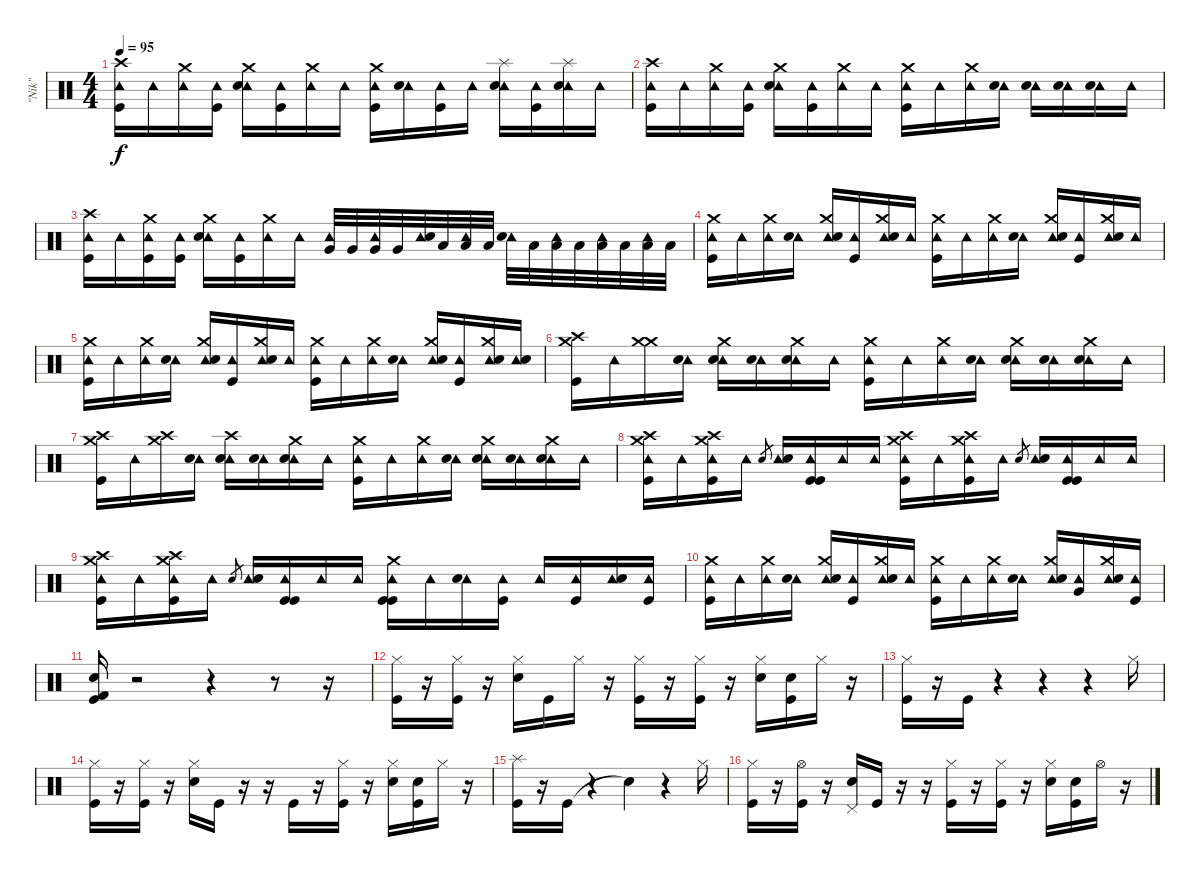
\track ("\"Nik\"" "\"Nik\"") {instrument percussion}
\staff {score}
\articulation defaults
\ts (4 4)
\tempo 95
\clef neutral
\ks c
("Tambourine (hit)" "Crash high (hit)" "Kick (hit)").16{dy f} "Tambourine (hit)".16 ("Tambourine (hit)" "Crash medium (hit)").16 ("Tambourine (hit)" "Kick (hit)").16 ("Tambourine (hit)" "Crash medium (hit)" "Snare (hit) 2").16 ("Tambourine (hit)" "Kick (hit)").16 ("Tambourine (hit)" "Crash medium (hit)").16 "Tambourine (hit)".16 ("Tambourine (hit)" "Crash medium (hit)" "Kick (hit)").16 ("Tambourine (hit)" "Snare (hit) 2").16 ("Tambourine (hit)" "Kick (hit)").16 "Tambourine (hit)".16 ("Tambourine (hit)" "Splash (hit)" "Snare (hit) 2").16 ("Tambourine (hit)" "Kick (hit)").16 ("Tambourine (hit)" "Splash (hit)" "Snare (hit) 2").16 "Tambourine (hit)".16 |
("Tambourine (hit)" "Crash high (hit)" "Kick (hit)").16 "Tambourine (hit)".16 ("Tambourine (hit)" "Crash medium (hit)").16 ("Tambourine (hit)" "Kick (hit)").16 ("Tambourine (hit)" "Crash medium (hit)" "Snare (hit) 2").16 ("Tambourine (hit)" "Kick (hit)").16 ("Tambourine (hit)" "Crash medium (hit)").16 "Tambourine (hit)".16 ("Tambourine (hit)" "Crash medium (hit)" "Kick (hit)").16 "Tambourine (hit)".16 ("Tambourine (hit)" "Crash medium (hit)").16 ("Tambourine (hit)" "Snare (hit) 2").16 ("Tambourine (hit)" "Snare (hit) 2").16 ("Tambourine (hit)" "Snare (hit) 2").16 ("Tambourine (hit)" "Snare (hit) 2").16 "Tambourine (hit)".16 |
("Tambourine (hit)" "Crash high (hit)" "Kick (hit)").16 "Tambourine (hit)".16 ("Tambourine (hit)" "Crash medium (hit)" "Kick (hit)").16 ("Tambourine (hit)" "Kick (hit)").16 ("Tambourine (hit)" "Crash medium (hit)" "Snare (hit) 2").16 ("Tambourine (hit)" "Kick (hit)").16 ("Tambourine (hit)" "Crash medium (hit)").16 "Tambourine (hit)".16 ("Tambourine (hit)" "Very Low Tom (hit)").32 "Very Low Tom (hit)".32 ("Tambourine (hit)" "Very Low Tom (hit)").32 "Very Low Tom (hit)".32 ("Tambourine (hit)" "Snare (hit) 2").32 "Low Tom (hit)".32 ("Tambourine (hit)" "Low Tom (hit)").32 "Low Tom (hit)".32 ("Tambourine (hit)" "Snare (hit) 2").32 "Low Tom (hit)".32 ("Tambourine (hit)" "Low Tom (hit)").32 "Low Tom (hit)".32 ("Tambourine (hit)" "Low Tom (hit)").32 "Low Floor Tom (hit)".32 ("Tambourine (hit)" "Low Floor Tom (hit)").32 "Low Floor Tom (hit)".32 |
("Tambourine (hit)" "Crash medium (hit)" "Kick (hit)").16 "Tambourine (hit)".16 ("Tambourine (hit)" "Crash medium (hit)").16 ("Tambourine (hit)" "Snare (hit) 2").16 ("Tambourine (hit)" "Crash medium (hit)" "Snare (hit) 2").16 ("Tambourine (hit)" "Kick (hit)").16 ("Tambourine (hit)" "Crash medium (hit)" "Snare (hit) 2").16 "Tambourine (hit)".16 ("Tambourine (hit)" "Crash medium (hit)" "Kick (hit)").16 "Tambourine (hit)".16 ("Tambourine (hit)" "Crash medium (hit)").16 ("Tambourine (hit)" "Snare (hit) 2").16 ("Tambourine (hit)" "Crash medium (hit)" "Snare (hit) 2").16 ("Tambourine (hit)" "Kick (hit)").16 ("Tambourine (hit)" "Crash medium (hit)" "Snare (hit) 2").16 "Tambourine (hit)".16 |
("Tambourine (hit)" "Crash medium (hit)" "Kick (hit)").16 "Tambourine (hit)".16 ("Tambourine (hit)" "Crash medium (hit)").16 ("Tambourine (hit)" "Snare (hit) 2").16 ("Tambourine (hit)" "Crash medium (hit)" "Snare (hit) 2").16 ("Tambourine (hit)" "Kick (hit)").16 ("Tambourine (hit)" "Crash medium (hit)" "Snare (hit) 2").16 "Tambourine (hit)".16 ("Tambourine (hit)" "Crash medium (hit)" "Kick (hit)").16 "Tambourine (hit)".16 ("Tambourine (hit)" "Crash medium (hit)").16 ("Tambourine (hit)" "Snare (hit) 2").16 ("Tambourine (hit)" "Crash medium (hit)" "Snare (hit) 2").16 ("Tambourine (hit)" "Kick (hit)").16 ("Tambourine (hit)" "Crash medium (hit)" "Snare (hit) 2").16 ("Tambourine (hit)" "Snare (hit) 2").16 |
("Crash medium (hit)" "Crash high (hit)" "Kick (hit)").16 "Tambourine (hit)".16 ("Crash medium (hit)" "Crash medium (hit)").16 ("Tambourine (hit)" "Snare (hit) 2").16 ("Tambourine (hit)" "Crash medium (hit)" "Snare (hit) 2").16 ("Tambourine (hit)" "Snare (hit) 2").16 ("Tambourine (hit)" "Crash medium (hit)" "Snare (hit) 2").16 "Tambourine (hit)".16 ("Tambourine (hit)" "Crash medium (hit)" "Kick (hit)").16 "Tambourine (hit)".16 ("Tambourine (hit)" "Crash medium (hit)").16 ("Tambourine (hit)" "Snare (hit) 2").16 ("Tambourine (hit)" "Crash medium (hit)" "Snare (hit) 2").16 ("Tambourine (hit)" "Snare (hit) 2").16 ("Tambourine (hit)" "Crash medium (hit)" "Snare (hit) 2").16 "Tambourine (hit)".16 |
("Crash medium (hit)" "Crash high (hit)" "Kick (hit)").16 "Tambourine (hit)".16 ("Crash medium (hit)" "Crash high (hit)").16 ("Tambourine (hit)" "Snare (hit) 2").16 ("Tambourine (hit)" "Crash high (hit)" "Snare (hit) 2").16 ("Tambourine (hit)" "Snare (hit) 2").16 ("Tambourine (hit)" "Crash medium (hit)" "Snare (hit) 2").16 "Tambourine (hit)".16 ("Tambourine (hit)" "Crash medium (hit)" "Kick (hit)").16 "Tambourine (hit)".16 ("Tambourine (hit)" "Crash medium (hit)").16 ("Tambourine (hit)" "Snare (hit) 2").16 ("Tambourine (hit)" "Crash medium (hit)" "Snare (hit) 2").16 ("Tambourine (hit)" "Snare (hit) 2").16 ("Tambourine (hit)" "Crash medium (hit)" "Snare (hit) 2").16 "Tambourine (hit)".16 |
("Tambourine (hit)" "Crash medium (hit)" "Crash high (hit)" "Kick (hit)").16 "Tambourine (hit)".16 ("Tambourine (hit)" "Crash medium (hit)" "Crash high (hit)" "Kick (hit)").16 "Tambourine (hit)".16 "Snare (hit) 2".8{gr} ("Tambourine (hit)" "Snare (hit) 2").16 ("Tambourine (hit)" "Kick (hit)" "Kick (hit)").16 "Tambourine (hit)".16 "Tambourine (hit)".16 ("Tambourine (hit)" "Crash medium (hit)" "Crash high (hit)" "Kick (hit)").16 "Tambourine (hit)".16 ("Tambourine (hit)" "Crash medium (hit)" "Crash high (hit)" "Kick (hit)").16 "Tambourine (hit)".16 "Snare (hit) 2".8{gr} ("Tambourine (hit)" "Snare (hit) 2").16 ("Tambourine (hit)" "Kick (hit)" "Kick (hit)").16 "Tambourine (hit)".16 "Tambourine (hit)".16 |
("Tambourine (hit)" "Crash medium (hit)" "Crash high (hit)" "Kick (hit)").16 "Tambourine (hit)".16 ("Tambourine (hit)" "Crash medium (hit)" "Crash high (hit)" "Kick (hit)").16 "Tambourine (hit)".16 "Snare (hit) 2".8{gr} ("Tambourine (hit)" "Snare (hit) 2").16 ("Tambourine (hit)" "Kick (hit)" "Kick (hit)").16 "Tambourine (hit)".16 "Tambourine (hit)".16 ("Tambourine (hit)" "Crash medium (hit)" "Kick (hit)" "Kick (hit)").16 "Tambourine (hit)".16 ("Tambourine (hit)" "Snare (hit) 2").16 ("Tambourine (hit)" "Kick (hit)").16 "Tambourine (hit)".16 ("Tambourine (hit)" "Kick (hit)").16 ("Tambourine (hit)" "Snare (hit) 2").16 ("Tambourine (hit)" "Kick (hit)").16 |
("Tambourine (hit)" "Crash medium (hit)" "Kick (hit)").16 "Tambourine (hit)".16 ("Tambourine (hit)" "Crash medium (hit)").16 ("Tambourine (hit)" "Snare (hit) 2").16 ("Tambourine (hit)" "Crash medium (hit)" "Snare (hit) 2").16 ("Tambourine (hit)" "Kick (hit)").16 ("Tambourine (hit)" "Crash medium (hit)" "Snare (hit) 2").16 "Tambourine (hit)".16 ("Tambourine (hit)" "Crash medium (hit)" "Kick (hit)").16 "Tambourine (hit)".16 ("Tambourine (hit)" "Crash medium (hit)").16 ("Tambourine (hit)" "Snare (hit) 2").16 ("Tambourine (hit)" "Crash medium (hit)" "Snare (hit) 2").16 ("Tambourine (hit)" "Very Low Tom (hit)").16 ("Tambourine (hit)" "Crash medium (hit)" "Snare (hit) 2").16 ("Tambourine (hit)" "Kick (hit)").16 |
("Snare (hit) 2" "Kick (hit) 2" "Kick (hit)").16 r.2 r.4 r.8 r.16 |
("Hi-Hat (closed)" "Kick (hit)").16 r.16 ("Hi-Hat (closed)" "Kick (hit)").16 r.16 ("Hi-Hat (closed)" "Snare (hit) 2").16 "Kick (hit)".16 "Hi-Hat (closed)".16 r.16 ("Hi-Hat (closed)" "Kick (hit)").16 r.16 ("Hi-Hat (closed)" "Kick (hit)").16 r.16 ("Hi-Hat (closed)" "Snare (hit) 2").16 ("Snare (hit)"{x} "Kick (hit)").16 "Hi-Hat (closed)".16 r.16 |
("Hi-Hat (closed)" "Kick (hit)").16 r.16 "Kick (hit)".16 r.4 r.4 r.4 "Hi-Hat (closed)".16 |
("Hi-Hat (closed)" "Kick (hit)").16 r.16 ("Hi-Hat (closed)" "Kick (hit)").16 r.16 ("Hi-Hat (closed)" "Snare (hit) 2").16 "Kick (hit)".16 r.16 r.16 "Kick (hit)".16 r.16 ("Hi-Hat (closed)" "Kick (hit)").16 r.16 ("Hi-Hat (closed)" "Snare (hit) 2").16 ("Snare (hit)"{x} "Kick (hit)").16 "Hi-Hat (closed)".16 r.16 |
("Splash (hit)" "Kick (hit)").16 r.16 "Kick (hit)".16 r.4 "Snare (hit)"{t}.4 r.4 "Hi-Hat (closed)".16 |
("Hi-Hat (closed)" "Kick (hit)").16 r.16 ("Hi-Hat (open)" "Kick (hit)").16 r.16 ("Pedal Hi-Hat (hit)" "Snare (hit) 2").16 "Kick (hit)".16 r.16 r.16 ("Hi-Hat (closed)" "Kick (hit)").16 r.16 ("Hi-Hat (closed)" "Kick (hit)").16 r.16 ("Hi-Hat (closed)" "Snare (hit) 2").16 ("Snare (hit)"{x} "Kick (hit)").16 "Hi-Hat (open)".16 r.16
